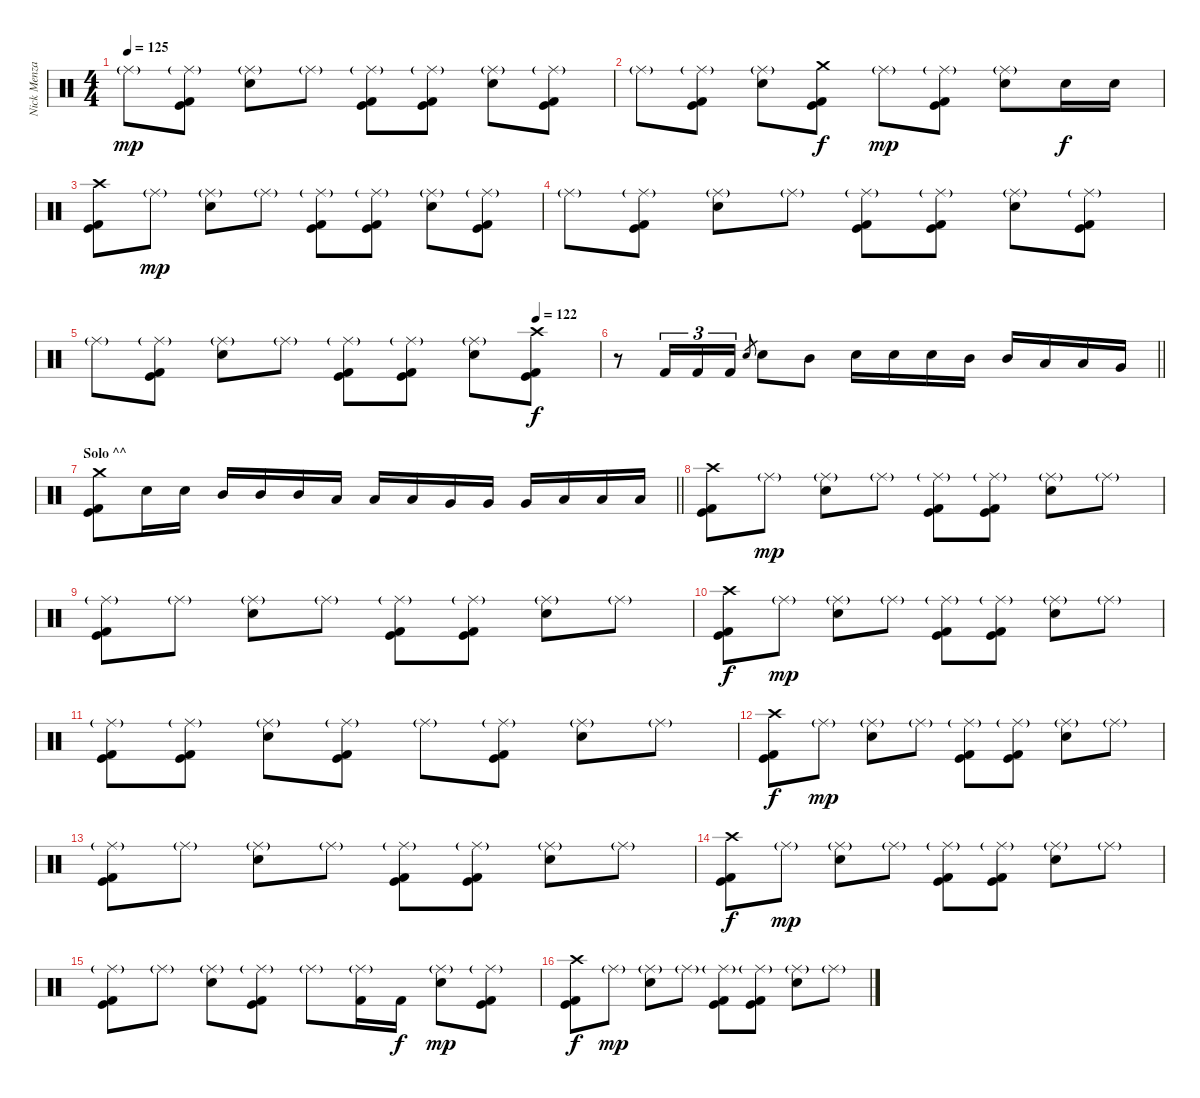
\track ("Nick Menza" "Nick Menza") {instrument percussion}
\staff {score}
\articulation defaults
\ts (4 4)
\tempo 125
\clef neutral
\ks c "Ride (middle)"{g}.8{dy mp}
("Ride (middle)"{g} "Kick (hit)" "Kick (hit) 2").8 ("Ride (middle)"{g} "Electric Snare (hit)").8 "Ride (middle)"{g}.8 ("Ride (middle)"{g} "Kick (hit)" "Kick (hit) 2").8 ("Ride (middle)"{g} "Kick (hit)" "Kick (hit) 2").8 ("Ride (middle)"{g} "Electric Snare (hit)").8 ("Ride (middle)"{g} "Kick (hit)" "Kick (hit) 2").8 |
"Ride (middle)"{g}.8 ("Ride (middle)"{g} "Kick (hit)" "Kick (hit) 2").8 ("Ride (middle)"{g} "Electric Snare (hit)").8 ("Crash medium (hit)" "Kick (hit)" "Kick (hit) 2").8{dy f} "Ride (middle)"{g}.8{dy mp} ("Ride (middle)"{g} "Kick (hit)" "Kick (hit) 2").8 ("Ride (middle)"{g} "Electric Snare (hit)").8 "Electric Snare (hit)".16{dy f} "Electric Snare (hit)".16 |
("Crash high (hit)" "Kick (hit)" "Kick (hit) 2").8 "Ride (middle)"{g}.8{dy mp} ("Ride (middle)"{g} "Electric Snare (hit)").8 "Ride (middle)"{g}.8 ("Ride (middle)"{g} "Kick (hit)" "Kick (hit) 2").8 ("Ride (middle)"{g} "Kick (hit)" "Kick (hit) 2").8 ("Ride (middle)"{g} "Electric Snare (hit)").8 ("Ride (middle)"{g} "Kick (hit)" "Kick (hit) 2").8 |
"Ride (middle)"{g}.8 ("Ride (middle)"{g} "Kick (hit)" "Kick (hit) 2").8 ("Ride (middle)"{g} "Electric Snare (hit)").8 "Ride (middle)"{g}.8 ("Ride (middle)"{g} "Kick (hit)" "Kick (hit) 2").8 ("Ride (middle)"{g} "Kick (hit)" "Kick (hit) 2").8 ("Ride (middle)"{g} "Electric Snare (hit)").8 ("Ride (middle)"{g} "Kick (hit)" "Kick (hit) 2").8 |
\tempo (122 0.875)
"Ride (middle)"{g}.8 ("Ride (middle)"{g} "Kick (hit)" "Kick (hit) 2").8 ("Ride (middle)"{g} "Electric Snare (hit)").8 "Ride (middle)"{g}.8 ("Ride (middle)"{g} "Kick (hit)" "Kick (hit) 2").8 ("Ride (middle)"{g} "Kick (hit)" "Kick (hit) 2").8 ("Ride (middle)"{g} "Electric Snare (hit)").8 ("Crash high (hit)" "Kick (hit)" "Kick (hit) 2").8{dy f} |
\barLineRight lightlight
r.8 "Kick (hit) 2".16{tu (3 2)} "Kick (hit) 2".16{tu (3 2)} "Kick (hit) 2".16{tu (3 2)} "Electric Snare (hit)".8{gr} "Electric Snare (hit)".8 "Mid Tom (hit)".8 "Electric Snare (hit)".16 "Electric Snare (hit)".16 "Electric Snare (hit)".16 "Mid Tom (hit)".16 "Mid Tom (hit)".16 "Low Tom (hit)".16 "Low Tom (hit)".16 "Very Low Tom (hit)".16 |
\section ("" "Solo ^^")
\barLineRight lightlight
("Crash medium (hit)" "Kick (hit)" "Kick (hit) 2").8 "Electric Snare (hit)".16 "Electric Snare (hit)".16 "Mid Tom (hit)".16 "Mid Tom (hit)".16 "Mid Tom (hit)".16 "Low Tom (hit)".16 "Low Tom (hit)".16 "Low Tom (hit)".16 "Very Low Tom (hit)".16 "Very Low Tom (hit)".16 "Very Low Tom (hit)".16 "Low Floor Tom (hit)".16 "Low Floor Tom (hit)".16 "Low Floor Tom (hit)".16 |
("Crash high (hit)" "Kick (hit)" "Kick (hit) 2").8 "Ride (middle)"{g}.8{dy mp} ("Ride (middle)"{g} "Electric Snare (hit)").8 "Ride (middle)"{g}.8 ("Ride (middle)"{g} "Kick (hit)" "Kick (hit) 2").8 ("Ride (middle)"{g} "Kick (hit)" "Kick (hit) 2").8 ("Ride (middle)"{g} "Electric Snare (hit)").8 "Ride (middle)"{g}.8 |
("Ride (middle)"{g} "Kick (hit)" "Kick (hit) 2").8 "Ride (middle)"{g}.8 ("Ride (middle)"{g} "Electric Snare (hit)").8 "Ride (middle)"{g}.8 ("Ride (middle)"{g} "Kick (hit)" "Kick (hit) 2").8 ("Ride (middle)"{g} "Kick (hit)" "Kick (hit) 2").8 ("Ride (middle)"{g} "Electric Snare (hit)").8 "Ride (middle)"{g}.8 |
("Crash high (hit)" "Kick (hit)" "Kick (hit) 2").8{dy f} "Ride (middle)"{g}.8{dy mp} ("Ride (middle)"{g} "Electric Snare (hit)").8 "Ride (middle)"{g}.8 ("Ride (middle)"{g} "Kick (hit)" "Kick (hit) 2").8 ("Ride (middle)"{g} "Kick (hit)" "Kick (hit) 2").8 ("Ride (middle)"{g} "Electric Snare (hit)").8 "Ride (middle)"{g}.8 |
("Ride (middle)"{g} "Kick (hit)" "Kick (hit) 2").8 ("Ride (middle)"{g} "Kick (hit)" "Kick (hit) 2").8 ("Ride (middle)"{g} "Electric Snare (hit)").8 ("Ride (middle)"{g} "Kick (hit)" "Kick (hit) 2").8 "Ride (middle)"{g}.8 ("Ride (middle)"{g} "Kick (hit)" "Kick (hit) 2").8 ("Ride (middle)"{g} "Electric Snare (hit)").8 "Ride (middle)"{g}.8 |
("Crash high (hit)" "Kick (hit)" "Kick (hit) 2").8{dy f} "Ride (middle)"{g}.8{dy mp} ("Ride (middle)"{g} "Electric Snare (hit)").8 "Ride (middle)"{g}.8 ("Ride (middle)"{g} "Kick (hit)" "Kick (hit) 2").8 ("Ride (middle)"{g} "Kick (hit)" "Kick (hit) 2").8 ("Ride (middle)"{g} "Electric Snare (hit)").8 "Ride (middle)"{g}.8 |
("Ride (middle)"{g} "Kick (hit)" "Kick (hit) 2").8 "Ride (middle)"{g}.8 ("Ride (middle)"{g} "Electric Snare (hit)").8 "Ride (middle)"{g}.8 ("Ride (middle)"{g} "Kick (hit)" "Kick (hit) 2").8 ("Ride (middle)"{g} "Kick (hit)" "Kick (hit) 2").8 ("Ride (middle)"{g} "Electric Snare (hit)").8 "Ride (middle)"{g}.8 |
("Crash high (hit)" "Kick (hit)" "Kick (hit) 2").8{dy f} "Ride (middle)"{g}.8{dy mp} ("Ride (middle)"{g} "Electric Snare (hit)").8 "Ride (middle)"{g}.8 ("Ride (middle)"{g} "Kick (hit)" "Kick (hit) 2").8 ("Ride (middle)"{g} "Kick (hit)" "Kick (hit) 2").8 ("Ride (middle)"{g} "Electric Snare (hit)").8 "Ride (middle)"{g}.8 |
("Ride (middle)"{g} "Kick (hit)" "Kick (hit) 2").8 "Ride (middle)"{g}.8 ("Ride (middle)"{g} "Electric Snare (hit)").8 ("Ride (middle)"{g} "Kick (hit)" "Kick (hit) 2").8 "Ride (middle)"{g}.8 ("Ride (middle)"{g} "Kick (hit) 2").16 "Kick (hit) 2".16{dy f} ("Ride (middle)"{g} "Electric Snare (hit)").8{dy mp} ("Ride (middle)"{g} "Kick (hit)" "Kick (hit) 2").8 |
("Crash high (hit)" "Kick (hit)" "Kick (hit) 2").8{dy f} "Ride (middle)"{g}.8{dy mp} ("Ride (middle)"{g} "Electric Snare (hit)").8 "Ride (middle)"{g}.8 ("Ride (middle)"{g} "Kick (hit)" "Kick (hit) 2").8 ("Ride (middle)"{g} "Kick (hit)" "Kick (hit) 2").8 ("Ride (middle)"{g} "Electric Snare (hit)").8 "Ride (middle)"{g}.8
